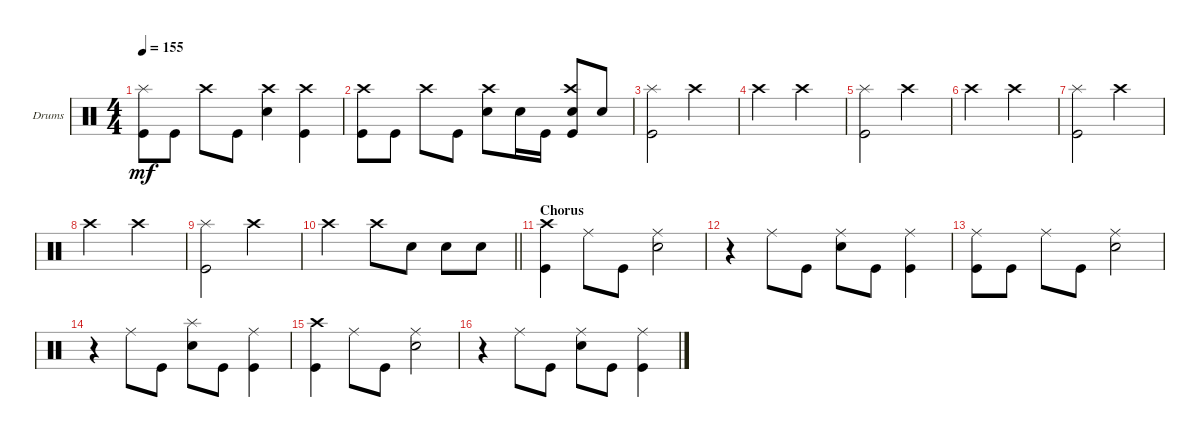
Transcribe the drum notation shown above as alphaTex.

\defaultSystemsLayout 4
\bracketExtendMode groupsimilarinstruments
\firstSystemTrackNameOrientation horizontal
\otherSystemsTrackNameOrientation horizontal
\track ("Drums" "Drums") {instrument percussion}
\staff {score}
\articulation defaults
\ts (4 4)
\tempo 155
\clef neutral
\ks c
("Kick (hit)" "Splash (hit)").8{dy mf} "Kick (hit)".8 "Crash high (hit)".8 "Kick (hit)".8 ("Snare (hit) 2" "Crash high (hit)").4 ("Kick (hit)" "Crash high (hit)").4 |
("Kick (hit)" "Crash high (hit)").8 "Kick (hit)".8 "Crash high (hit)".8 "Kick (hit)".8 ("Snare (hit) 2" "Crash high (hit)").8 "Snare (hit) 2".16 "Kick (hit)".16 ("Snare (hit) 2" "Kick (hit)" "Crash high (hit)").8 "Snare (hit) 2".8 |
("Kick (hit)" "Splash (hit)").2 "Crash high (hit)".2 |
"Crash high (hit)".2 "Crash high (hit)".2 |
("Kick (hit)" "Splash (hit)").2 "Crash high (hit)".2 |
"Crash high (hit)".2 "Crash high (hit)".2 |
("Kick (hit)" "Splash (hit)").2 "Crash high (hit)".2 |
"Crash high (hit)".2 "Crash high (hit)".2 |
("Kick (hit)" "Splash (hit)").2 "Crash high (hit)".2 |
\barLineRight lightlight "Crash high (hit)".2 "Crash high (hit)".8 "Snare (hit) 2".8 "Snare (hit) 2".8 "Snare (hit) 2".8
|
\section ("" "Chorus")
("Crash high (hit)" "Kick (hit)").4 "Ride (middle)".8 "Kick (hit)".8 ("Snare (hit) 2" "Ride (middle)").2 |
r.4 "Ride (middle)".8 "Kick (hit)".8 ("Snare (hit) 2" "Ride (middle)").8 "Kick (hit)".8 ("Kick (hit)" "Ride (middle)").4 |
("Kick (hit)" "Ride (middle)").8 "Kick (hit)".8 "Ride (middle)".8 "Kick (hit)".8 ("Snare (hit) 2" "Ride (middle)").2 |
r.4 "Ride (middle)".8 "Kick (hit)".8 ("Snare (hit) 2" "Splash (hit)").8 "Kick (hit)".8 ("Kick (hit)" "Ride (middle)").4 |
("Crash high (hit)" "Kick (hit)").4 "Ride (middle)".8 "Kick (hit)".8 ("Snare (hit) 2" "Ride (middle)").2 |
r.4 "Ride (middle)".8 "Kick (hit)".8 ("Snare (hit) 2" "Ride (middle)").8 "Kick (hit)".8 ("Kick (hit)" "Ride (middle)").4
